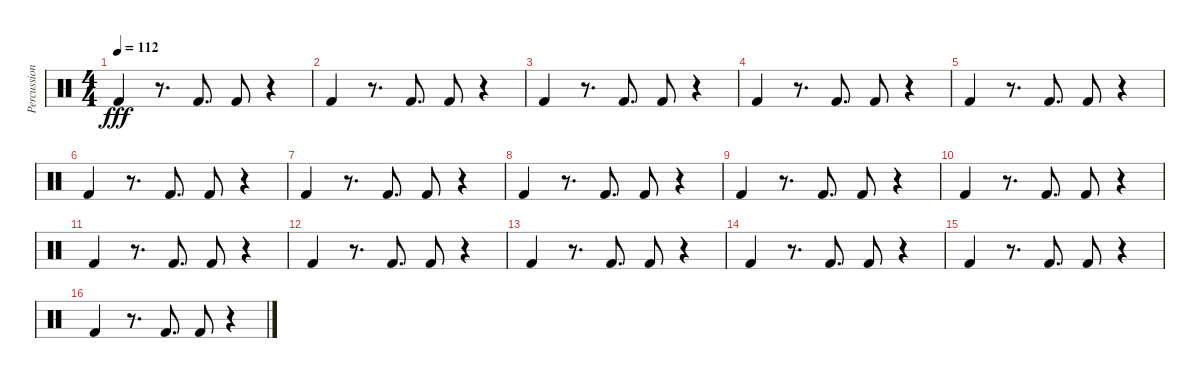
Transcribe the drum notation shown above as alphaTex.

\track ("Percussion" "Percussion") {instrument percussion}
\staff {score}
\articulation defaults
\ts (4 4)
\tempo 112
\clef neutral
\ks c "Kick (hit) 2".4{dy fff}
r.8{d} "Kick (hit) 2".8{d} "Kick (hit) 2".8 r.4 |
"Kick (hit) 2".4 r.8{d} "Kick (hit) 2".8{d} "Kick (hit) 2".8 r.4 |
"Kick (hit) 2".4 r.8{d} "Kick (hit) 2".8{d} "Kick (hit) 2".8 r.4 |
"Kick (hit) 2".4 r.8{d} "Kick (hit) 2".8{d} "Kick (hit) 2".8 r.4 |
"Kick (hit) 2".4 r.8{d} "Kick (hit) 2".8{d} "Kick (hit) 2".8 r.4 |
"Kick (hit) 2".4 r.8{d} "Kick (hit) 2".8{d} "Kick (hit) 2".8 r.4 |
"Kick (hit) 2".4 r.8{d} "Kick (hit) 2".8{d} "Kick (hit) 2".8 r.4 |
"Kick (hit) 2".4 r.8{d} "Kick (hit) 2".8{d} "Kick (hit) 2".8 r.4 |
"Kick (hit) 2".4 r.8{d} "Kick (hit) 2".8{d} "Kick (hit) 2".8 r.4 |
"Kick (hit) 2".4 r.8{d} "Kick (hit) 2".8{d} "Kick (hit) 2".8 r.4 |
"Kick (hit) 2".4 r.8{d} "Kick (hit) 2".8{d} "Kick (hit) 2".8 r.4 |
"Kick (hit) 2".4 r.8{d} "Kick (hit) 2".8{d} "Kick (hit) 2".8 r.4 |
"Kick (hit) 2".4 r.8{d} "Kick (hit) 2".8{d} "Kick (hit) 2".8 r.4 |
"Kick (hit) 2".4 r.8{d} "Kick (hit) 2".8{d} "Kick (hit) 2".8 r.4 |
"Kick (hit) 2".4 r.8{d} "Kick (hit) 2".8{d} "Kick (hit) 2".8 r.4 |
"Kick (hit) 2".4 r.8{d} "Kick (hit) 2".8{d} "Kick (hit) 2".8 r.4
